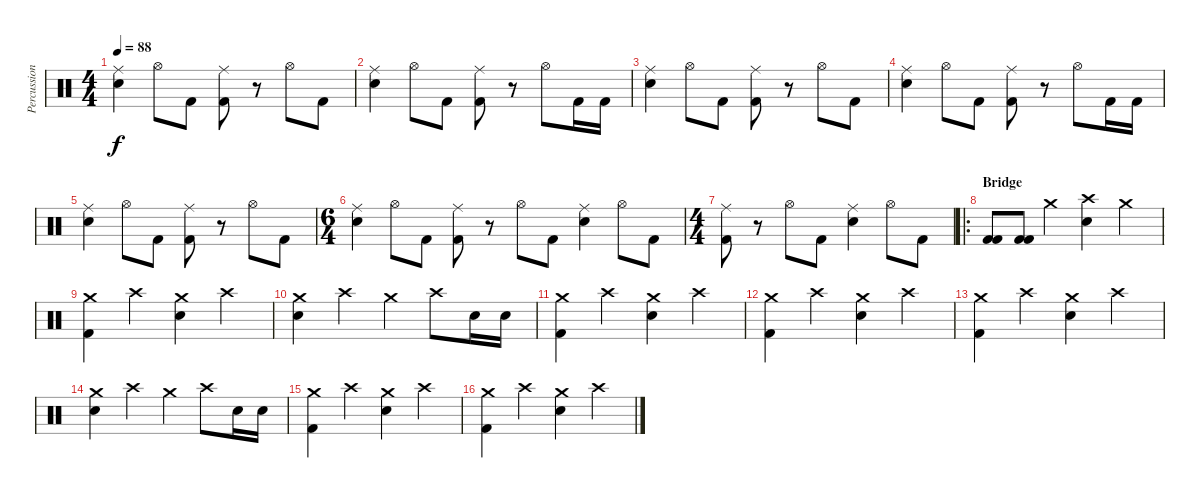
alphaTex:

\track ("Percussion" "Percussion") {instrument percussion}
\staff {score}
\articulation defaults
\ts (4 4)
\tempo 88
\clef neutral
\ks c
("Electric Snare (hit)" "Ride (middle)").4{dy f} "Hi-Hat (open)".8 "Kick (hit) 2".8 ("Kick (hit) 2" "Ride (middle)").8 r.8 "Hi-Hat (open)".8 "Kick (hit) 2".8 |
("Electric Snare (hit)" "Ride (middle)").4 "Hi-Hat (open)".8 "Kick (hit) 2".8 ("Kick (hit) 2" "Ride (middle)").8 r.8 "Hi-Hat (open)".8 "Kick (hit) 2".16 "Kick (hit) 2".16 |
("Electric Snare (hit)" "Ride (middle)").4 "Hi-Hat (open)".8 "Kick (hit) 2".8 ("Kick (hit) 2" "Ride (middle)").8 r.8 "Hi-Hat (open)".8 "Kick (hit) 2".8 |
("Electric Snare (hit)" "Ride (middle)").4 "Hi-Hat (open)".8 "Kick (hit) 2".8 ("Kick (hit) 2" "Ride (middle)").8 r.8 "Hi-Hat (open)".8 "Kick (hit) 2".16 "Kick (hit) 2".16 |
("Electric Snare (hit)" "Ride (middle)").4 "Hi-Hat (open)".8 "Kick (hit) 2".8 ("Kick (hit) 2" "Ride (middle)").8 r.8 "Hi-Hat (open)".8 "Kick (hit) 2".8 |
\ts (6 4)
("Electric Snare (hit)" "Ride (middle)").4 "Hi-Hat (open)".8 "Kick (hit) 2".8 ("Kick (hit) 2" "Ride (middle)").8 r.8 "Hi-Hat (open)".8 "Kick (hit) 2".8 ("Electric Snare (hit)" "Ride (middle)").4 "Hi-Hat (open)".8 "Kick (hit) 2".8 |
\ts (4 4)
("Kick (hit) 2" "Ride (middle)").8 r.8 "Hi-Hat (open)".8 "Kick (hit) 2".8 ("Electric Snare (hit)" "Ride (middle)").4 "Hi-Hat (open)".8 "Kick (hit) 2".8 |
\ro
\section ("" "Bridge")
("Kick (hit) 2" "Kick (hit) 2").8 ("Kick (hit) 2" "Kick (hit) 2").8 "Crash medium (hit)".4 ("Crash high (hit)" "Electric Snare (hit)").4 "Crash medium (hit)".4 |
("Crash medium (hit)" "Kick (hit) 2").4 "Crash high (hit)".4 ("Crash medium (hit)" "Electric Snare (hit)").4 "Crash high (hit)".4 |
("Crash medium (hit)" "Electric Snare (hit)").4 "Crash high (hit)".4 "Crash medium (hit)".4 "Crash high (hit)".8 "Electric Snare (hit)".16 "Electric Snare (hit)".16 |
("Crash medium (hit)" "Kick (hit) 2").4 "Crash high (hit)".4 ("Crash medium (hit)" "Electric Snare (hit)").4 "Crash high (hit)".4 |
("Crash medium (hit)" "Kick (hit) 2").4 "Crash high (hit)".4 ("Crash medium (hit)" "Electric Snare (hit)").4 "Crash high (hit)".4 |
("Crash medium (hit)" "Kick (hit) 2").4 "Crash high (hit)".4 ("Crash medium (hit)" "Electric Snare (hit)").4 "Crash high (hit)".4 |
("Crash medium (hit)" "Electric Snare (hit)").4 "Crash high (hit)".4 "Crash medium (hit)".4 "Crash high (hit)".8 "Electric Snare (hit)".16 "Electric Snare (hit)".16 |
("Crash medium (hit)" "Kick (hit) 2").4 "Crash high (hit)".4 ("Crash medium (hit)" "Electric Snare (hit)").4 "Crash high (hit)".4 |
("Crash medium (hit)" "Kick (hit) 2").4 "Crash high (hit)".4 ("Crash medium (hit)" "Electric Snare (hit)").4 "Crash high (hit)".4
